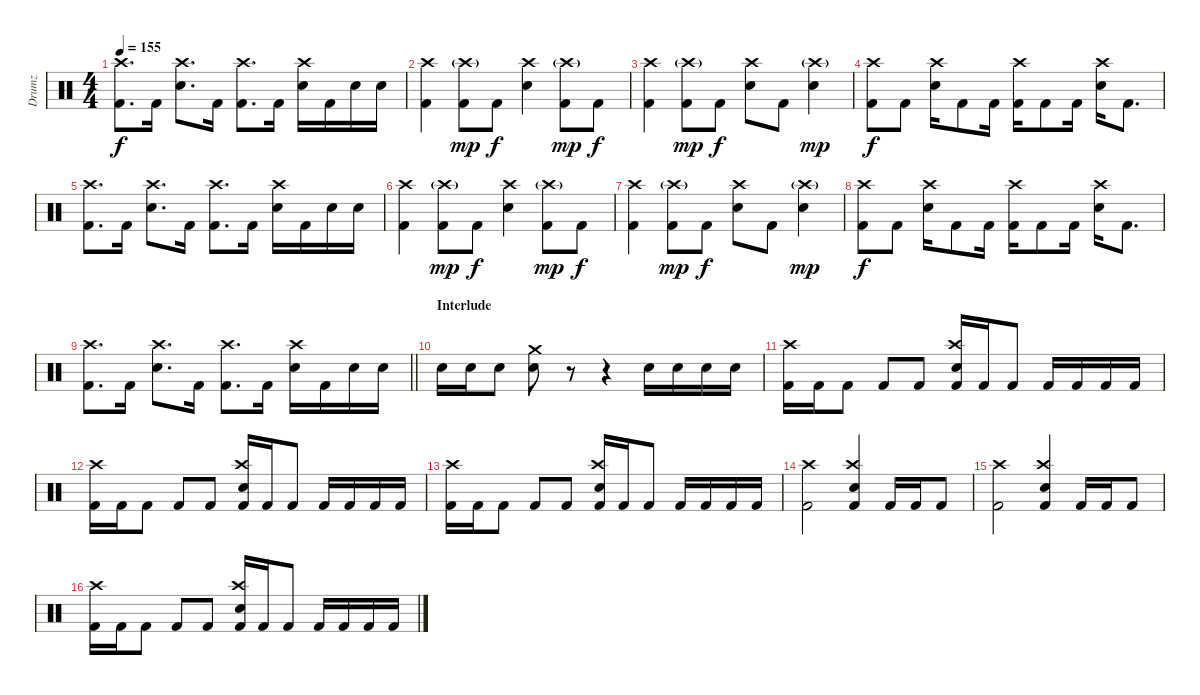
\track ("Drumz" "Drumz") {instrument percussion}
\staff {score}
\articulation defaults
\ts (4 4)
\tempo 155
\clef neutral
\ks c
("Kick (hit) 2" "Crash high (hit)").8{d dy f} "Kick (hit) 2".16 ("Crash high (hit)" "Electric Snare (hit)").8{d} "Kick (hit) 2".16 ("Kick (hit) 2" "Crash high (hit)").8{d} "Kick (hit) 2".16 ("Crash high (hit)" "Electric Snare (hit)").16 "Kick (hit) 2".16 "Electric Snare (hit)".16 "Electric Snare (hit)".16 |
("Kick (hit) 2" "Crash high (hit)").4 ("Kick (hit) 2" "Crash high (hit)"{g}).8{dy mp} "Kick (hit) 2".8{dy f} ("Crash high (hit)" "Electric Snare (hit)").4 ("Kick (hit) 2" "Crash high (hit)"{g}).8{dy mp} "Kick (hit) 2".8{dy f} |
("Kick (hit) 2" "Crash high (hit)").4 ("Kick (hit) 2" "Crash high (hit)"{g}).8{dy mp} "Kick (hit) 2".8{dy f} ("Crash high (hit)" "Electric Snare (hit)").8 "Kick (hit) 2".8 ("Electric Snare (hit)" "Crash high (hit)"{g}).4{dy mp} |
("Kick (hit) 2" "Crash high (hit)").8{dy f} "Kick (hit) 2".8 ("Crash high (hit)" "Electric Snare (hit)").16 "Kick (hit) 2".8 "Kick (hit) 2".16 ("Kick (hit) 2" "Crash high (hit)").16 "Kick (hit) 2".8 "Kick (hit) 2".16 ("Crash high (hit)" "Electric Snare (hit)").16 "Kick (hit) 2".8{d} |
("Kick (hit) 2" "Crash high (hit)").8{d} "Kick (hit) 2".16 ("Crash high (hit)" "Electric Snare (hit)").8{d} "Kick (hit) 2".16 ("Kick (hit) 2" "Crash high (hit)").8{d} "Kick (hit) 2".16 ("Crash high (hit)" "Electric Snare (hit)").16 "Kick (hit) 2".16 "Electric Snare (hit)".16 "Electric Snare (hit)".16 |
("Kick (hit) 2" "Crash high (hit)").4 ("Kick (hit) 2" "Crash high (hit)"{g}).8{dy mp} "Kick (hit) 2".8{dy f} ("Crash high (hit)" "Electric Snare (hit)").4 ("Kick (hit) 2" "Crash high (hit)"{g}).8{dy mp} "Kick (hit) 2".8{dy f} |
("Kick (hit) 2" "Crash high (hit)").4 ("Kick (hit) 2" "Crash high (hit)"{g}).8{dy mp} "Kick (hit) 2".8{dy f} ("Crash high (hit)" "Electric Snare (hit)").8 "Kick (hit) 2".8 ("Electric Snare (hit)" "Crash high (hit)"{g}).4{dy mp} |
("Kick (hit) 2" "Crash high (hit)").8{dy f} "Kick (hit) 2".8 ("Crash high (hit)" "Electric Snare (hit)").16 "Kick (hit) 2".8 "Kick (hit) 2".16 ("Kick (hit) 2" "Crash high (hit)").16 "Kick (hit) 2".8 "Kick (hit) 2".16 ("Crash high (hit)" "Electric Snare (hit)").16 "Kick (hit) 2".8{d} |
\barLineRight lightlight
("Kick (hit) 2" "Crash high (hit)").8{d} "Kick (hit) 2".16 ("Crash high (hit)" "Electric Snare (hit)").8{d} "Kick (hit) 2".16 ("Kick (hit) 2" "Crash high (hit)").8{d} "Kick (hit) 2".16 ("Crash high (hit)" "Electric Snare (hit)").16 "Kick (hit) 2".16 "Electric Snare (hit)".16 "Electric Snare (hit)".16 |
\section ("" "Interlude")
"Electric Snare (hit)".16 "Electric Snare (hit)".16 "Electric Snare (hit)".8 ("Electric Snare (hit)" "Crash medium (hit)").8 r.8 r.4 "Electric Snare (hit)".16 "Electric Snare (hit)".16 "Electric Snare (hit)".16 "Electric Snare (hit)".16 |
("Kick (hit) 2" "Crash high (hit)").16 "Kick (hit) 2".16 "Kick (hit) 2".8 "Kick (hit) 2".8 "Kick (hit) 2".8 ("Kick (hit) 2" "Crash high (hit)" "Electric Snare (hit)").16 "Kick (hit) 2".16 "Kick (hit) 2".8 "Kick (hit) 2".16 "Kick (hit) 2".16 "Kick (hit) 2".16 "Kick (hit) 2".16 |
("Kick (hit) 2" "Crash high (hit)").16 "Kick (hit) 2".16 "Kick (hit) 2".8 "Kick (hit) 2".8 "Kick (hit) 2".8 ("Kick (hit) 2" "Crash high (hit)" "Electric Snare (hit)").16 "Kick (hit) 2".16 "Kick (hit) 2".8 "Kick (hit) 2".16 "Kick (hit) 2".16 "Kick (hit) 2".16 "Kick (hit) 2".16 |
("Kick (hit) 2" "Crash high (hit)").16 "Kick (hit) 2".16 "Kick (hit) 2".8 "Kick (hit) 2".8 "Kick (hit) 2".8 ("Kick (hit) 2" "Crash high (hit)" "Electric Snare (hit)").16 "Kick (hit) 2".16 "Kick (hit) 2".8 "Kick (hit) 2".16 "Kick (hit) 2".16 "Kick (hit) 2".16 "Kick (hit) 2".16 |
("Kick (hit) 2" "Crash high (hit)").2 ("Kick (hit) 2" "Crash high (hit)" "Electric Snare (hit)").4 "Kick (hit) 2".16 "Kick (hit) 2".16 "Kick (hit) 2".8 |
("Kick (hit) 2" "Crash high (hit)").2 ("Kick (hit) 2" "Crash high (hit)" "Electric Snare (hit)").4 "Kick (hit) 2".16 "Kick (hit) 2".16 "Kick (hit) 2".8 |
("Kick (hit) 2" "Crash high (hit)").16 "Kick (hit) 2".16 "Kick (hit) 2".8 "Kick (hit) 2".8 "Kick (hit) 2".8 ("Kick (hit) 2" "Crash high (hit)" "Electric Snare (hit)").16 "Kick (hit) 2".16 "Kick (hit) 2".8 "Kick (hit) 2".16 "Kick (hit) 2".16 "Kick (hit) 2".16 "Kick (hit) 2".16
